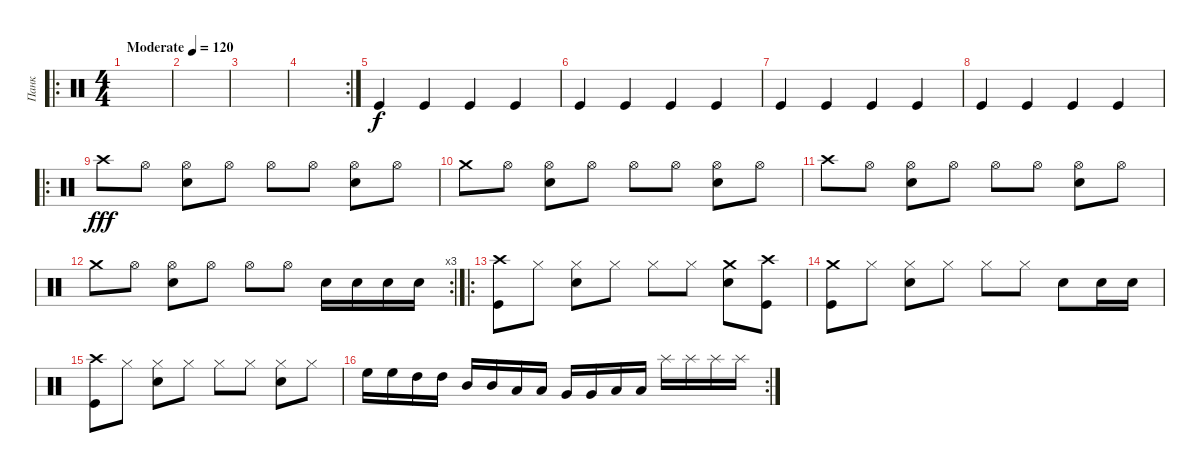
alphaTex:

\track ("Панк" "Панк") {instrument percussion}
\staff {score}
\articulation defaults
\ro
\ts (4 4)
\tempo (120 "Moderate")
\clef neutral
\ks c
|
|
|
\rc 2
|
"Kick (hit)".4 "Kick (hit)".4 "Kick (hit)".4 "Kick (hit)".4 |
"Kick (hit)".4 "Kick (hit)".4 "Kick (hit)".4 "Kick (hit)".4 |
"Kick (hit)".4 "Kick (hit)".4 "Kick (hit)".4 "Kick (hit)".4 |
"Kick (hit)".4 "Kick (hit)".4 "Kick (hit)".4 "Kick (hit)".4 |
\ro "Crash high (hit)".8{dy fff} "Hi-Hat (open)".8
("Hi-Hat (open)" "Electric Snare (hit)").8 "Hi-Hat (open)".8 "Hi-Hat (open)".8 "Hi-Hat (open)".8 ("Hi-Hat (open)" "Electric Snare (hit)").8 "Hi-Hat (open)".8 |
"Crash medium (hit)".8 "Hi-Hat (open)".8 ("Hi-Hat (open)" "Electric Snare (hit)").8 "Hi-Hat (open)".8 "Hi-Hat (open)".8 "Hi-Hat (open)".8 ("Hi-Hat (open)" "Electric Snare (hit)").8 "Hi-Hat (open)".8 |
"Crash high (hit)".8 "Hi-Hat (open)".8 ("Hi-Hat (open)" "Electric Snare (hit)").8 "Hi-Hat (open)".8 "Hi-Hat (open)".8 "Hi-Hat (open)".8 ("Hi-Hat (open)" "Electric Snare (hit)").8 "Hi-Hat (open)".8 |
\rc 3 "Crash medium (hit)".8 "Hi-Hat (open)".8
("Hi-Hat (open)" "Electric Snare (hit)").8 "Hi-Hat (open)".8 "Hi-Hat (open)".8 "Hi-Hat (open)".8 "Electric Snare (hit)".16 "Electric Snare (hit)".16 "Electric Snare (hit)".16 "Electric Snare (hit)".16 |
\ro
("Crash high (hit)" "Kick (hit)").8 "Hi-Hat (closed)".8 ("Hi-Hat (closed)" "Electric Snare (hit)").8 "Hi-Hat (closed)".8 "Hi-Hat (closed)".8 "Hi-Hat (closed)".8 ("Crash medium (hit)" "Electric Snare (hit)").8 ("Crash high (hit)" "Kick (hit)").8 |
("Crash medium (hit)" "Kick (hit)").8 "Hi-Hat (closed)".8 ("Hi-Hat (closed)" "Electric Snare (hit)").8 "Hi-Hat (closed)".8 "Hi-Hat (closed)".8 "Hi-Hat (closed)".8 "Electric Snare (hit)".8 "Electric Snare (hit)".16 "Electric Snare (hit)".16 |
("Crash high (hit)" "Kick (hit)").8 "Hi-Hat (closed)".8 ("Hi-Hat (closed)" "Electric Snare (hit)").8 "Hi-Hat (closed)".8 "Hi-Hat (closed)".8 "Hi-Hat (closed)".8 ("Hi-Hat (closed)" "Electric Snare (hit)").8 "Hi-Hat (closed)".8 |
\rc 2 "High Floor Tom (hit)".16 "High Floor Tom (hit)".16 "High Tom (hit)".16 "High Tom (hit)".16 "Mid Tom (hit)".16 "Mid Tom (hit)".16 "Low Tom (hit)".16 "Low Tom (hit)".16 "Very Low Tom (hit)".16 "Very Low Tom (hit)".16 "Low Floor Tom (hit)".16 "Low Floor Tom (hit)".16 "Splash (hit)".16 "Splash (hit)".16 "Splash (hit)".16 "Splash (hit)".16
